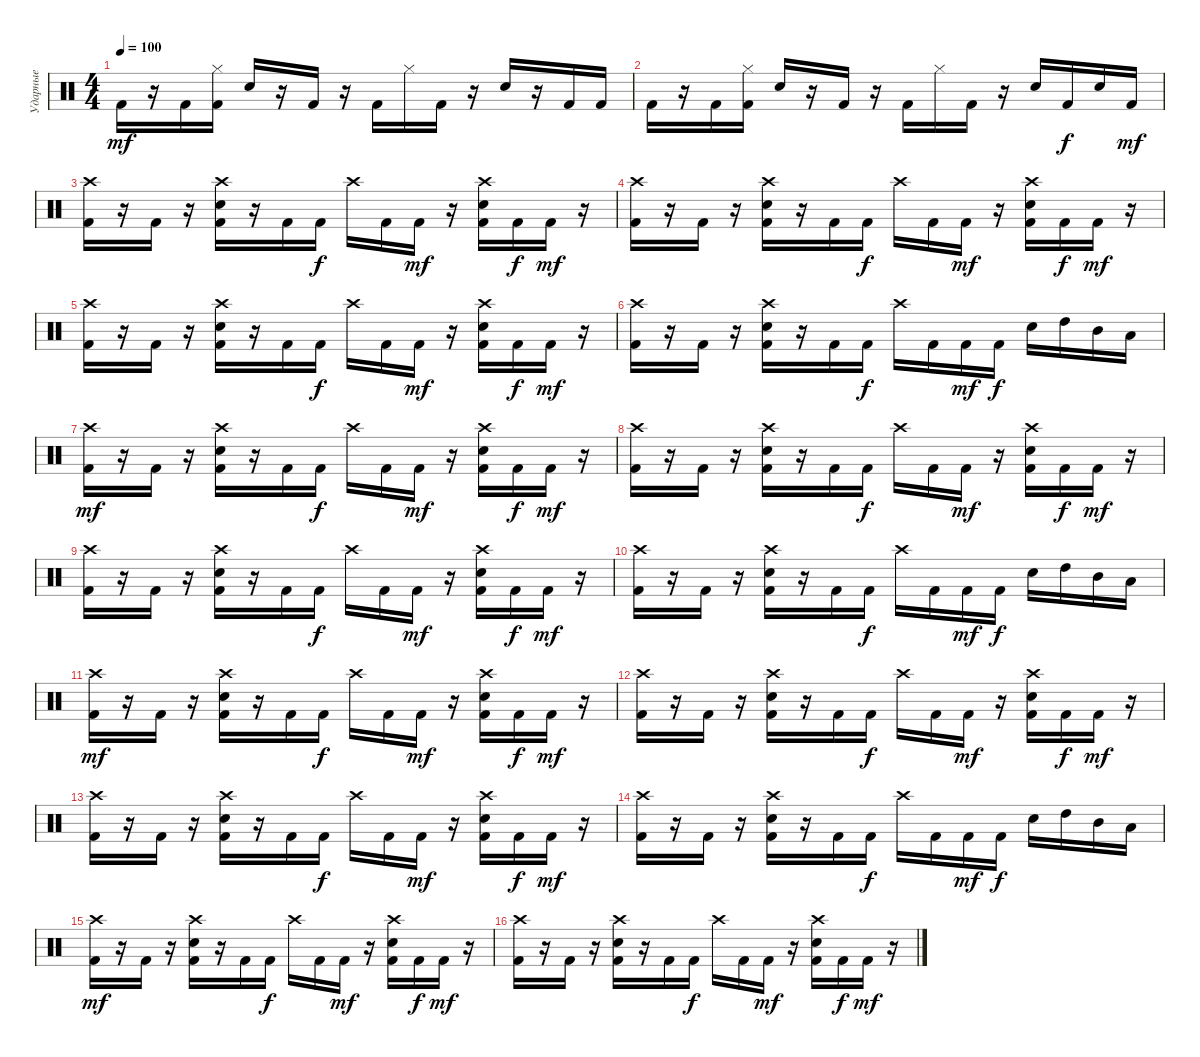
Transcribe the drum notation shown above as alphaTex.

\track ("Ударные" "Ударные") {instrument percussion}
\staff {score}
\articulation defaults
\ts (4 4)
\tempo 100
\clef neutral
\ks c "Kick (hit) 2".16{dy mf}
r.16 "Kick (hit) 2".16 ("Hi-Hat (closed)" "Kick (hit) 2").16 "Electric Snare (hit)".16 r.16 "Kick (hit) 2".16 r.16 "Kick (hit) 2".16 "Hi-Hat (closed)".16 "Kick (hit) 2".16 r.16 "Electric Snare (hit)".16 r.16 "Kick (hit) 2".16 "Kick (hit) 2".16 |
"Kick (hit) 2".16 r.16 "Kick (hit) 2".16 ("Hi-Hat (closed)" "Kick (hit) 2").16 "Electric Snare (hit)".16 r.16 "Kick (hit) 2".16 r.16 "Kick (hit) 2".16 "Hi-Hat (closed)".16 "Kick (hit) 2".16 r.16 "Electric Snare (hit)".16 "Kick (hit) 2".16{dy f} "Electric Snare (hit)".16 "Kick (hit) 2".16{dy mf} |
("Crash high (hit)" "Kick (hit) 2").16 r.16 "Kick (hit) 2".16 r.16 ("Crash high (hit)" "Electric Snare (hit)" "Kick (hit) 2").16 r.16 "Kick (hit) 2".16 "Kick (hit) 2".16{dy f} "Crash high (hit)".16 "Kick (hit) 2".16 "Kick (hit) 2".16{dy mf} r.16 ("Crash high (hit)" "Electric Snare (hit)" "Kick (hit) 2").16 "Kick (hit) 2".16{dy f} "Kick (hit) 2".16{dy mf} r.16 |
("Crash high (hit)" "Kick (hit) 2").16 r.16 "Kick (hit) 2".16 r.16 ("Crash high (hit)" "Electric Snare (hit)" "Kick (hit) 2").16 r.16 "Kick (hit) 2".16 "Kick (hit) 2".16{dy f} "Crash high (hit)".16 "Kick (hit) 2".16 "Kick (hit) 2".16{dy mf} r.16 ("Crash high (hit)" "Electric Snare (hit)" "Kick (hit) 2").16 "Kick (hit) 2".16{dy f} "Kick (hit) 2".16{dy mf} r.16 |
("Crash high (hit)" "Kick (hit) 2").16 r.16 "Kick (hit) 2".16 r.16 ("Crash high (hit)" "Electric Snare (hit)" "Kick (hit) 2").16 r.16 "Kick (hit) 2".16 "Kick (hit) 2".16{dy f} "Crash high (hit)".16 "Kick (hit) 2".16 "Kick (hit) 2".16{dy mf} r.16 ("Crash high (hit)" "Electric Snare (hit)" "Kick (hit) 2").16 "Kick (hit) 2".16{dy f} "Kick (hit) 2".16{dy mf} r.16 |
("Crash high (hit)" "Kick (hit) 2").16 r.16 "Kick (hit) 2".16 r.16 ("Crash high (hit)" "Electric Snare (hit)" "Kick (hit) 2").16 r.16 "Kick (hit) 2".16 "Kick (hit) 2".16{dy f} "Crash high (hit)".16 "Kick (hit) 2".16 "Kick (hit) 2".16{dy mf} "Kick (hit) 2".16{dy f} "Electric Snare (hit)".16 "High Tom (hit)".16 "Mid Tom (hit)".16 "Low Tom (hit)".16 |
("Crash high (hit)" "Kick (hit) 2").16{dy mf} r.16 "Kick (hit) 2".16 r.16 ("Crash high (hit)" "Electric Snare (hit)" "Kick (hit) 2").16 r.16 "Kick (hit) 2".16 "Kick (hit) 2".16{dy f} "Crash high (hit)".16 "Kick (hit) 2".16 "Kick (hit) 2".16{dy mf} r.16 ("Crash high (hit)" "Electric Snare (hit)" "Kick (hit) 2").16 "Kick (hit) 2".16{dy f} "Kick (hit) 2".16{dy mf} r.16 |
("Crash high (hit)" "Kick (hit) 2").16 r.16 "Kick (hit) 2".16 r.16 ("Crash high (hit)" "Electric Snare (hit)" "Kick (hit) 2").16 r.16 "Kick (hit) 2".16 "Kick (hit) 2".16{dy f} "Crash high (hit)".16 "Kick (hit) 2".16 "Kick (hit) 2".16{dy mf} r.16 ("Crash high (hit)" "Electric Snare (hit)" "Kick (hit) 2").16 "Kick (hit) 2".16{dy f} "Kick (hit) 2".16{dy mf} r.16 |
("Crash high (hit)" "Kick (hit) 2").16 r.16 "Kick (hit) 2".16 r.16 ("Crash high (hit)" "Electric Snare (hit)" "Kick (hit) 2").16 r.16 "Kick (hit) 2".16 "Kick (hit) 2".16{dy f} "Crash high (hit)".16 "Kick (hit) 2".16 "Kick (hit) 2".16{dy mf} r.16 ("Crash high (hit)" "Electric Snare (hit)" "Kick (hit) 2").16 "Kick (hit) 2".16{dy f} "Kick (hit) 2".16{dy mf} r.16 |
("Crash high (hit)" "Kick (hit) 2").16 r.16 "Kick (hit) 2".16 r.16 ("Crash high (hit)" "Electric Snare (hit)" "Kick (hit) 2").16 r.16 "Kick (hit) 2".16 "Kick (hit) 2".16{dy f} "Crash high (hit)".16 "Kick (hit) 2".16 "Kick (hit) 2".16{dy mf} "Kick (hit) 2".16{dy f} "Electric Snare (hit)".16 "High Tom (hit)".16 "Mid Tom (hit)".16 "Low Tom (hit)".16 |
("Crash high (hit)" "Kick (hit) 2").16{dy mf} r.16 "Kick (hit) 2".16 r.16 ("Crash high (hit)" "Electric Snare (hit)" "Kick (hit) 2").16 r.16 "Kick (hit) 2".16 "Kick (hit) 2".16{dy f} "Crash high (hit)".16 "Kick (hit) 2".16 "Kick (hit) 2".16{dy mf} r.16 ("Crash high (hit)" "Electric Snare (hit)" "Kick (hit) 2").16 "Kick (hit) 2".16{dy f} "Kick (hit) 2".16{dy mf} r.16 |
("Crash high (hit)" "Kick (hit) 2").16 r.16 "Kick (hit) 2".16 r.16 ("Crash high (hit)" "Electric Snare (hit)" "Kick (hit) 2").16 r.16 "Kick (hit) 2".16 "Kick (hit) 2".16{dy f} "Crash high (hit)".16 "Kick (hit) 2".16 "Kick (hit) 2".16{dy mf} r.16 ("Crash high (hit)" "Electric Snare (hit)" "Kick (hit) 2").16 "Kick (hit) 2".16{dy f} "Kick (hit) 2".16{dy mf} r.16 |
("Crash high (hit)" "Kick (hit) 2").16 r.16 "Kick (hit) 2".16 r.16 ("Crash high (hit)" "Electric Snare (hit)" "Kick (hit) 2").16 r.16 "Kick (hit) 2".16 "Kick (hit) 2".16{dy f} "Crash high (hit)".16 "Kick (hit) 2".16 "Kick (hit) 2".16{dy mf} r.16 ("Crash high (hit)" "Electric Snare (hit)" "Kick (hit) 2").16 "Kick (hit) 2".16{dy f} "Kick (hit) 2".16{dy mf} r.16 |
("Crash high (hit)" "Kick (hit) 2").16 r.16 "Kick (hit) 2".16 r.16 ("Crash high (hit)" "Electric Snare (hit)" "Kick (hit) 2").16 r.16 "Kick (hit) 2".16 "Kick (hit) 2".16{dy f} "Crash high (hit)".16 "Kick (hit) 2".16 "Kick (hit) 2".16{dy mf} "Kick (hit) 2".16{dy f} "Electric Snare (hit)".16 "High Tom (hit)".16 "Mid Tom (hit)".16 "Low Tom (hit)".16 |
("Crash high (hit)" "Kick (hit) 2").16{dy mf} r.16 "Kick (hit) 2".16 r.16 ("Crash high (hit)" "Electric Snare (hit)" "Kick (hit) 2").16 r.16 "Kick (hit) 2".16 "Kick (hit) 2".16{dy f} "Crash high (hit)".16 "Kick (hit) 2".16 "Kick (hit) 2".16{dy mf} r.16 ("Crash high (hit)" "Electric Snare (hit)" "Kick (hit) 2").16 "Kick (hit) 2".16{dy f} "Kick (hit) 2".16{dy mf} r.16 |
("Crash high (hit)" "Kick (hit) 2").16 r.16 "Kick (hit) 2".16 r.16 ("Crash high (hit)" "Electric Snare (hit)" "Kick (hit) 2").16 r.16 "Kick (hit) 2".16 "Kick (hit) 2".16{dy f} "Crash high (hit)".16 "Kick (hit) 2".16 "Kick (hit) 2".16{dy mf} r.16 ("Crash high (hit)" "Electric Snare (hit)" "Kick (hit) 2").16 "Kick (hit) 2".16{dy f} "Kick (hit) 2".16{dy mf} r.16
